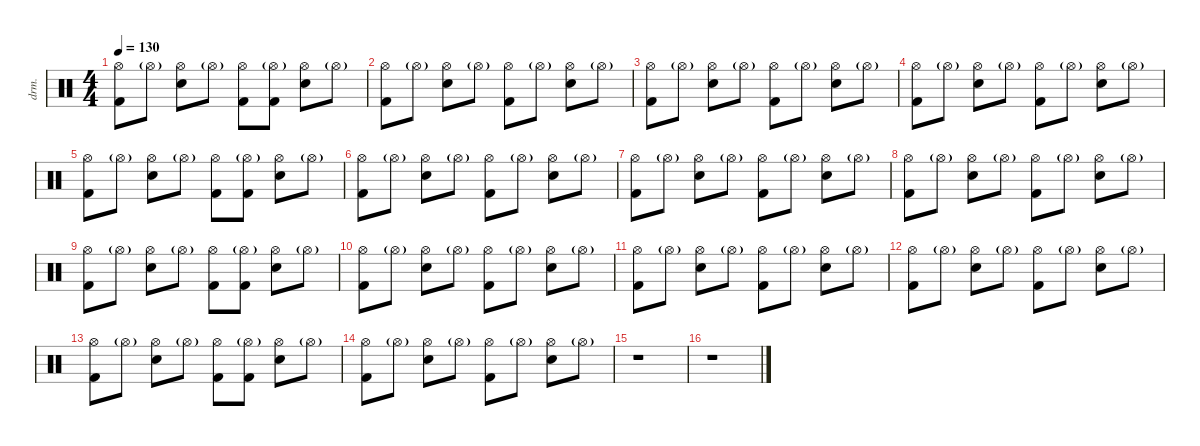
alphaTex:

\defaultSystemsLayout 4
\hideDynamics
\bracketExtendMode nobrackets
\otherSystemsTrackNameOrientation horizontal
\track ("Percussion" "drm.") {instrument percussion}
\staff {score}
\articulation defaults
\ts (4 4)
\tempo 130
\clef neutral
\ks c
("Hi-Hat (open)" "Kick (hit) 2").8{dy f} "Hi-Hat (open)"{g}.8 ("Hi-Hat (open)" "Snare (hit) 2").8 "Hi-Hat (open)"{g}.8 ("Hi-Hat (open)" "Kick (hit) 2").8 ("Hi-Hat (open)"{g} "Kick (hit) 2").8 ("Hi-Hat (open)" "Snare (hit) 2").8 "Hi-Hat (open)"{g}.8 |
("Hi-Hat (open)" "Kick (hit) 2").8 "Hi-Hat (open)"{g}.8 ("Hi-Hat (open)" "Snare (hit) 2").8 "Hi-Hat (open)"{g}.8 ("Hi-Hat (open)" "Kick (hit) 2").8 "Hi-Hat (open)"{g}.8 ("Hi-Hat (open)" "Snare (hit) 2").8 "Hi-Hat (open)"{g}.8 |
("Hi-Hat (open)" "Kick (hit) 2").8 "Hi-Hat (open)"{g}.8 ("Hi-Hat (open)" "Snare (hit) 2").8 "Hi-Hat (open)"{g}.8 ("Hi-Hat (open)" "Kick (hit) 2").8 "Hi-Hat (open)"{g}.8 ("Hi-Hat (open)" "Snare (hit) 2").8 "Hi-Hat (open)"{g}.8 |
("Hi-Hat (open)" "Kick (hit) 2").8 "Hi-Hat (open)"{g}.8 ("Hi-Hat (open)" "Snare (hit) 2").8 "Hi-Hat (open)"{g}.8 ("Hi-Hat (open)" "Kick (hit) 2").8 "Hi-Hat (open)"{g}.8 ("Hi-Hat (open)" "Snare (hit) 2").8 "Hi-Hat (open)"{g}.8 |
("Hi-Hat (open)" "Kick (hit) 2").8 "Hi-Hat (open)"{g}.8 ("Hi-Hat (open)" "Snare (hit) 2").8 "Hi-Hat (open)"{g}.8 ("Hi-Hat (open)" "Kick (hit) 2").8 ("Hi-Hat (open)"{g} "Kick (hit) 2").8 ("Hi-Hat (open)" "Snare (hit) 2").8 "Hi-Hat (open)"{g}.8 |
("Hi-Hat (open)" "Kick (hit) 2").8 "Hi-Hat (open)"{g}.8 ("Hi-Hat (open)" "Snare (hit) 2").8 "Hi-Hat (open)"{g}.8 ("Hi-Hat (open)" "Kick (hit) 2").8 "Hi-Hat (open)"{g}.8 ("Hi-Hat (open)" "Snare (hit) 2").8 "Hi-Hat (open)"{g}.8 |
("Hi-Hat (open)" "Kick (hit) 2").8 "Hi-Hat (open)"{g}.8 ("Hi-Hat (open)" "Snare (hit) 2").8 "Hi-Hat (open)"{g}.8 ("Hi-Hat (open)" "Kick (hit) 2").8 "Hi-Hat (open)"{g}.8 ("Hi-Hat (open)" "Snare (hit) 2").8 "Hi-Hat (open)"{g}.8 |
("Hi-Hat (open)" "Kick (hit) 2").8 "Hi-Hat (open)"{g}.8 ("Hi-Hat (open)" "Snare (hit) 2").8 "Hi-Hat (open)"{g}.8 ("Hi-Hat (open)" "Kick (hit) 2").8 "Hi-Hat (open)"{g}.8 ("Hi-Hat (open)" "Snare (hit) 2").8 "Hi-Hat (open)"{g}.8 |
("Hi-Hat (open)" "Kick (hit) 2").8 "Hi-Hat (open)"{g}.8 ("Hi-Hat (open)" "Snare (hit) 2").8 "Hi-Hat (open)"{g}.8 ("Hi-Hat (open)" "Kick (hit) 2").8 ("Hi-Hat (open)"{g} "Kick (hit) 2").8 ("Hi-Hat (open)" "Snare (hit) 2").8 "Hi-Hat (open)"{g}.8 |
("Hi-Hat (open)" "Kick (hit) 2").8 "Hi-Hat (open)"{g}.8 ("Hi-Hat (open)" "Snare (hit) 2").8 "Hi-Hat (open)"{g}.8 ("Hi-Hat (open)" "Kick (hit) 2").8 "Hi-Hat (open)"{g}.8 ("Hi-Hat (open)" "Snare (hit) 2").8 "Hi-Hat (open)"{g}.8 |
("Hi-Hat (open)" "Kick (hit) 2").8 "Hi-Hat (open)"{g}.8 ("Hi-Hat (open)" "Snare (hit) 2").8 "Hi-Hat (open)"{g}.8 ("Hi-Hat (open)" "Kick (hit) 2").8 "Hi-Hat (open)"{g}.8 ("Hi-Hat (open)" "Snare (hit) 2").8 "Hi-Hat (open)"{g}.8 |
("Hi-Hat (open)" "Kick (hit) 2").8 "Hi-Hat (open)"{g}.8 ("Hi-Hat (open)" "Snare (hit) 2").8 "Hi-Hat (open)"{g}.8 ("Hi-Hat (open)" "Kick (hit) 2").8 "Hi-Hat (open)"{g}.8 ("Hi-Hat (open)" "Snare (hit) 2").8 "Hi-Hat (open)"{g}.8 |
("Hi-Hat (open)" "Kick (hit) 2").8 "Hi-Hat (open)"{g}.8 ("Hi-Hat (open)" "Snare (hit) 2").8 "Hi-Hat (open)"{g}.8 ("Hi-Hat (open)" "Kick (hit) 2").8 ("Hi-Hat (open)"{g} "Kick (hit) 2").8 ("Hi-Hat (open)" "Snare (hit) 2").8 "Hi-Hat (open)"{g}.8 |
("Hi-Hat (open)" "Kick (hit) 2").8 "Hi-Hat (open)"{g}.8 ("Hi-Hat (open)" "Snare (hit) 2").8 "Hi-Hat (open)"{g}.8 ("Hi-Hat (open)" "Kick (hit) 2").8 "Hi-Hat (open)"{g}.8 ("Hi-Hat (open)" "Snare (hit) 2").8 "Hi-Hat (open)"{g}.8 |
r.1 |
r.1
